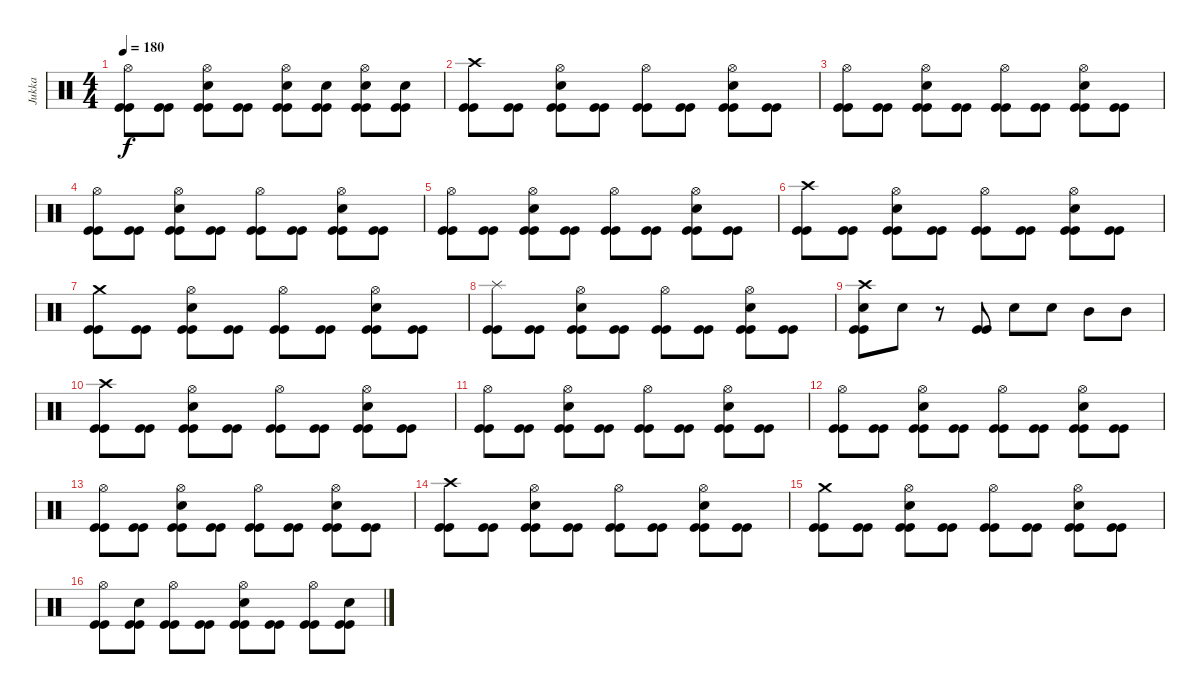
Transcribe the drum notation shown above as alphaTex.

\track ("Jukka" "Jukka") {instrument percussion}
\staff {score}
\articulation defaults
\ts (4 4)
\tempo 180
\clef neutral
\ks c
("Hi-Hat (open)" "Kick (hit)" "Kick (hit)").8{dy f} ("Kick (hit)" "Kick (hit)").8 ("Hi-Hat (open)" "Kick (hit)" "Kick (hit)" "Snare (hit) 2").8 ("Kick (hit)" "Kick (hit)").8 ("Hi-Hat (open)" "Kick (hit)" "Kick (hit)" "Snare (hit) 2").8 ("Kick (hit)" "Kick (hit)" "Snare (hit) 2").8 ("Hi-Hat (open)" "Kick (hit)" "Kick (hit)" "Snare (hit) 2").8 ("Kick (hit)" "Kick (hit)" "Snare (hit) 2").8 |
("Crash high (hit)" "Kick (hit)" "Kick (hit)").8 ("Kick (hit)" "Kick (hit)").8 ("Hi-Hat (open)" "Kick (hit)" "Kick (hit)" "Snare (hit) 2").8 ("Kick (hit)" "Kick (hit)").8 ("Hi-Hat (open)" "Kick (hit)" "Kick (hit)").8 ("Kick (hit)" "Kick (hit)").8 ("Hi-Hat (open)" "Kick (hit)" "Kick (hit)" "Snare (hit) 2").8 ("Kick (hit)" "Kick (hit)").8 |
("Hi-Hat (open)" "Kick (hit)" "Kick (hit)").8 ("Kick (hit)" "Kick (hit)").8 ("Hi-Hat (open)" "Kick (hit)" "Kick (hit)" "Snare (hit) 2").8 ("Kick (hit)" "Kick (hit)").8 ("Hi-Hat (open)" "Kick (hit)" "Kick (hit)").8 ("Kick (hit)" "Kick (hit)").8 ("Hi-Hat (open)" "Kick (hit)" "Kick (hit)" "Snare (hit) 2").8 ("Kick (hit)" "Kick (hit)").8 |
("Hi-Hat (open)" "Kick (hit)" "Kick (hit)").8 ("Kick (hit)" "Kick (hit)").8 ("Hi-Hat (open)" "Kick (hit)" "Kick (hit)" "Snare (hit) 2").8 ("Kick (hit)" "Kick (hit)").8 ("Hi-Hat (open)" "Kick (hit)" "Kick (hit)").8 ("Kick (hit)" "Kick (hit)").8 ("Hi-Hat (open)" "Kick (hit)" "Kick (hit)" "Snare (hit) 2").8 ("Kick (hit)" "Kick (hit)").8 |
("Hi-Hat (open)" "Kick (hit)" "Kick (hit)").8 ("Kick (hit)" "Kick (hit)").8 ("Hi-Hat (open)" "Kick (hit)" "Kick (hit)" "Snare (hit) 2").8 ("Kick (hit)" "Kick (hit)").8 ("Hi-Hat (open)" "Kick (hit)" "Kick (hit)").8 ("Kick (hit)" "Kick (hit)").8 ("Hi-Hat (open)" "Kick (hit)" "Kick (hit)" "Snare (hit) 2").8 ("Kick (hit)" "Kick (hit)").8 |
("Crash high (hit)" "Kick (hit)" "Kick (hit)").8 ("Kick (hit)" "Kick (hit)").8 ("Hi-Hat (open)" "Kick (hit)" "Kick (hit)" "Snare (hit) 2").8 ("Kick (hit)" "Kick (hit)").8 ("Hi-Hat (open)" "Kick (hit)" "Kick (hit)").8 ("Kick (hit)" "Kick (hit)").8 ("Hi-Hat (open)" "Kick (hit)" "Kick (hit)" "Snare (hit) 2").8 ("Kick (hit)" "Kick (hit)").8 |
("Crash medium (hit)" "Kick (hit)" "Kick (hit)").8 ("Kick (hit)" "Kick (hit)").8 ("Hi-Hat (open)" "Kick (hit)" "Kick (hit)" "Snare (hit) 2").8 ("Kick (hit)" "Kick (hit)").8 ("Hi-Hat (open)" "Kick (hit)" "Kick (hit)").8 ("Kick (hit)" "Kick (hit)").8 ("Hi-Hat (open)" "Kick (hit)" "Kick (hit)" "Snare (hit) 2").8 ("Kick (hit)" "Kick (hit)").8 |
("Splash (hit)" "Kick (hit)" "Kick (hit)").8 ("Kick (hit)" "Kick (hit)").8 ("Hi-Hat (open)" "Kick (hit)" "Kick (hit)" "Snare (hit) 2").8 ("Kick (hit)" "Kick (hit)").8 ("Hi-Hat (open)" "Kick (hit)" "Kick (hit)").8 ("Kick (hit)" "Kick (hit)").8 ("Hi-Hat (open)" "Kick (hit)" "Kick (hit)" "Snare (hit) 2").8 ("Kick (hit)" "Kick (hit)").8 |
("Crash high (hit)" "Snare (hit) 2" "Kick (hit)" "Kick (hit)").8 "Snare (hit) 2".8 r.8 ("Kick (hit)" "Kick (hit)").8 "Snare (hit) 2".8 "Snare (hit) 2".8 "Mid Tom (hit)".8 "Mid Tom (hit)".8 |
("Crash high (hit)" "Kick (hit)" "Kick (hit)").8 ("Kick (hit)" "Kick (hit)").8 ("Hi-Hat (open)" "Kick (hit)" "Kick (hit)" "Snare (hit) 2").8 ("Kick (hit)" "Kick (hit)").8 ("Hi-Hat (open)" "Kick (hit)" "Kick (hit)").8 ("Kick (hit)" "Kick (hit)").8 ("Hi-Hat (open)" "Kick (hit)" "Kick (hit)" "Snare (hit) 2").8 ("Kick (hit)" "Kick (hit)").8 |
("Hi-Hat (open)" "Kick (hit)" "Kick (hit)").8 ("Kick (hit)" "Kick (hit)").8 ("Hi-Hat (open)" "Kick (hit)" "Kick (hit)" "Snare (hit) 2").8 ("Kick (hit)" "Kick (hit)").8 ("Hi-Hat (open)" "Kick (hit)" "Kick (hit)").8 ("Kick (hit)" "Kick (hit)").8 ("Hi-Hat (open)" "Kick (hit)" "Kick (hit)" "Snare (hit) 2").8 ("Kick (hit)" "Kick (hit)").8 |
("Hi-Hat (open)" "Kick (hit)" "Kick (hit)").8 ("Kick (hit)" "Kick (hit)").8 ("Hi-Hat (open)" "Kick (hit)" "Kick (hit)" "Snare (hit) 2").8 ("Kick (hit)" "Kick (hit)").8 ("Hi-Hat (open)" "Kick (hit)" "Kick (hit)").8 ("Kick (hit)" "Kick (hit)").8 ("Hi-Hat (open)" "Kick (hit)" "Kick (hit)" "Snare (hit) 2").8 ("Kick (hit)" "Kick (hit)").8 |
("Hi-Hat (open)" "Kick (hit)" "Kick (hit)").8 ("Kick (hit)" "Kick (hit)").8 ("Hi-Hat (open)" "Kick (hit)" "Kick (hit)" "Snare (hit) 2").8 ("Kick (hit)" "Kick (hit)").8 ("Hi-Hat (open)" "Kick (hit)" "Kick (hit)").8 ("Kick (hit)" "Kick (hit)").8 ("Hi-Hat (open)" "Kick (hit)" "Kick (hit)" "Snare (hit) 2").8 ("Kick (hit)" "Kick (hit)").8 |
("Crash high (hit)" "Kick (hit)" "Kick (hit)").8 ("Kick (hit)" "Kick (hit)").8 ("Hi-Hat (open)" "Kick (hit)" "Kick (hit)" "Snare (hit) 2").8 ("Kick (hit)" "Kick (hit)").8 ("Hi-Hat (open)" "Kick (hit)" "Kick (hit)").8 ("Kick (hit)" "Kick (hit)").8 ("Hi-Hat (open)" "Kick (hit)" "Kick (hit)" "Snare (hit) 2").8 ("Kick (hit)" "Kick (hit)").8 |
("Crash medium (hit)" "Kick (hit)" "Kick (hit)").8 ("Kick (hit)" "Kick (hit)").8 ("Hi-Hat (open)" "Kick (hit)" "Kick (hit)" "Snare (hit) 2").8 ("Kick (hit)" "Kick (hit)").8 ("Hi-Hat (open)" "Kick (hit)" "Kick (hit)").8 ("Kick (hit)" "Kick (hit)").8 ("Hi-Hat (open)" "Kick (hit)" "Kick (hit)" "Snare (hit) 2").8 ("Kick (hit)" "Kick (hit)").8 |
("Hi-Hat (open)" "Kick (hit)" "Kick (hit)").8 ("Kick (hit)" "Kick (hit)" "Snare (hit) 2").8 ("Hi-Hat (open)" "Kick (hit)" "Kick (hit)").8 ("Kick (hit)" "Kick (hit)").8 ("Hi-Hat (open)" "Kick (hit)" "Kick (hit)" "Snare (hit) 2").8 ("Kick (hit)" "Kick (hit)").8 ("Hi-Hat (open)" "Kick (hit)" "Kick (hit)").8 ("Kick (hit)" "Kick (hit)" "Snare (hit) 2").8
